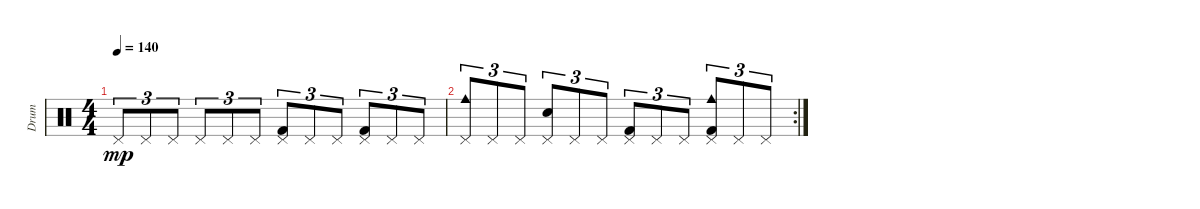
\track ("Drum" "Drum") {instrument percussion}
\staff {score}
\articulation defaults
\ts (4 4)
\tempo 140
\clef neutral
\ks c "Pedal Hi-Hat (hit)".8{tu (3 2) dy mp} "Pedal Hi-Hat (hit)".8{tu (3 2)} "Pedal Hi-Hat (hit)".8{tu (3 2)} "Pedal Hi-Hat (hit)".8{tu (3 2)} "Pedal Hi-Hat (hit)".8{tu (3 2)} "Pedal Hi-Hat (hit)".8{tu (3 2)}
("Pedal Hi-Hat (hit)" "Kick (hit) 2").8{tu (3 2)} "Pedal Hi-Hat (hit)".8{tu (3 2)} "Pedal Hi-Hat (hit)".8{tu (3 2)} ("Pedal Hi-Hat (hit)" "Kick (hit) 2").8{tu (3 2)} "Pedal Hi-Hat (hit)".8{tu (3 2)} "Pedal Hi-Hat (hit)".8{tu (3 2)} |
\rc 2
("Cowbell medium (hit)" "Pedal Hi-Hat (hit)").8{tu (3 2)} "Pedal Hi-Hat (hit)".8{tu (3 2)} "Pedal Hi-Hat (hit)".8{tu (3 2)} ("Electric Snare (hit)" "Pedal Hi-Hat (hit)").8{tu (3 2)} "Pedal Hi-Hat (hit)".8{tu (3 2)} "Pedal Hi-Hat (hit)".8{tu (3 2)} ("Pedal Hi-Hat (hit)" "Kick (hit) 2").8{tu (3 2)} "Pedal Hi-Hat (hit)".8{tu (3 2)} "Pedal Hi-Hat (hit)".8{tu (3 2)} ("Cowbell medium (hit)" "Pedal Hi-Hat (hit)" "Kick (hit) 2").8{tu (3 2)} "Pedal Hi-Hat (hit)".8{tu (3 2)} "Pedal Hi-Hat (hit)".8{tu (3 2)}
